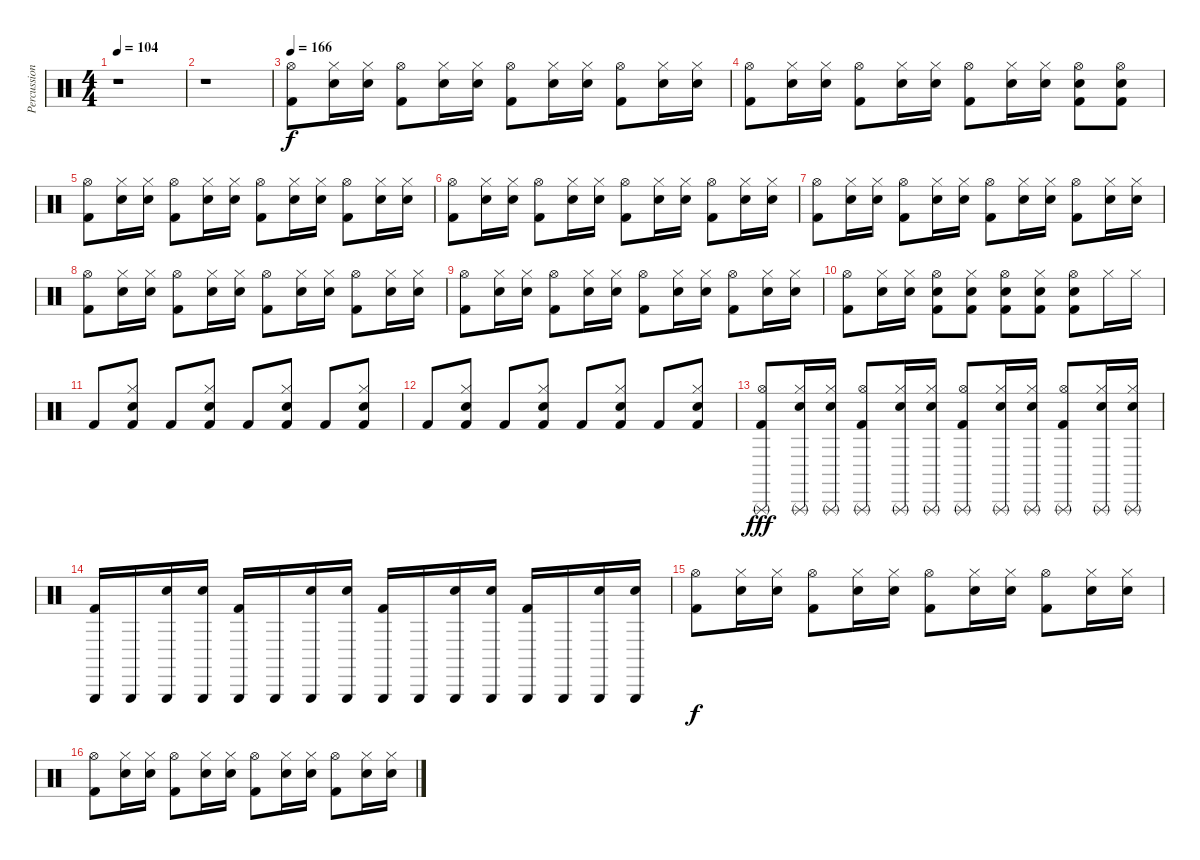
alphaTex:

\track ("Percussion" "Percussion") {instrument percussion}
\staff {score}
\articulation defaults
\ts (4 4)
\tempo 104
\clef neutral
\ks c
r.1{dy f} |
r.1 |
\tempo 166
("Hi-Hat (open)" "Kick (hit) 2").8 ("Hi-Hat (closed)" "Snare (hit) 2").16 ("Hi-Hat (closed)" "Snare (hit) 2").16 ("Hi-Hat (open)" "Kick (hit) 2").8 ("Hi-Hat (closed)" "Snare (hit) 2").16 ("Hi-Hat (closed)" "Snare (hit) 2").16 ("Hi-Hat (open)" "Kick (hit) 2").8 ("Hi-Hat (closed)" "Snare (hit) 2").16 ("Hi-Hat (closed)" "Snare (hit) 2").16 ("Hi-Hat (open)" "Kick (hit) 2").8 ("Hi-Hat (closed)" "Snare (hit) 2").16 ("Hi-Hat (closed)" "Snare (hit) 2").16 |
("Hi-Hat (open)" "Kick (hit) 2").8 ("Hi-Hat (closed)" "Snare (hit) 2").16 ("Hi-Hat (closed)" "Snare (hit) 2").16 ("Hi-Hat (open)" "Kick (hit) 2").8 ("Hi-Hat (closed)" "Snare (hit) 2").16 ("Hi-Hat (closed)" "Snare (hit) 2").16 ("Hi-Hat (open)" "Kick (hit) 2").8 ("Hi-Hat (closed)" "Snare (hit) 2").16 ("Hi-Hat (closed)" "Snare (hit) 2").16 ("Hi-Hat (open)" "Snare (hit) 2" "Kick (hit) 2").8 ("Hi-Hat (open)" "Snare (hit) 2" "Kick (hit) 2").8 |
("Hi-Hat (open)" "Kick (hit) 2").8 ("Hi-Hat (closed)" "Snare (hit) 2").16 ("Hi-Hat (closed)" "Snare (hit) 2").16 ("Hi-Hat (open)" "Kick (hit) 2").8 ("Hi-Hat (closed)" "Snare (hit) 2").16 ("Hi-Hat (closed)" "Snare (hit) 2").16 ("Hi-Hat (open)" "Kick (hit) 2").8 ("Hi-Hat (closed)" "Snare (hit) 2").16 ("Hi-Hat (closed)" "Snare (hit) 2").16 ("Hi-Hat (open)" "Kick (hit) 2").8 ("Hi-Hat (closed)" "Snare (hit) 2").16 ("Hi-Hat (closed)" "Snare (hit) 2").16 |
("Hi-Hat (open)" "Kick (hit) 2").8 ("Hi-Hat (closed)" "Snare (hit) 2").16 ("Hi-Hat (closed)" "Snare (hit) 2").16 ("Hi-Hat (open)" "Kick (hit) 2").8 ("Hi-Hat (closed)" "Snare (hit) 2").16 ("Hi-Hat (closed)" "Snare (hit) 2").16 ("Hi-Hat (open)" "Kick (hit) 2").8 ("Hi-Hat (closed)" "Snare (hit) 2").16 ("Hi-Hat (closed)" "Snare (hit) 2").16 ("Hi-Hat (open)" "Kick (hit) 2").8 ("Hi-Hat (closed)" "Snare (hit) 2").16 ("Hi-Hat (closed)" "Snare (hit) 2").16 |
("Hi-Hat (open)" "Kick (hit) 2").8 ("Hi-Hat (closed)" "Snare (hit) 2").16 ("Hi-Hat (closed)" "Snare (hit) 2").16 ("Hi-Hat (open)" "Kick (hit) 2").8 ("Hi-Hat (closed)" "Snare (hit) 2").16 ("Hi-Hat (closed)" "Snare (hit) 2").16 ("Hi-Hat (open)" "Kick (hit) 2").8 ("Hi-Hat (closed)" "Snare (hit) 2").16 ("Hi-Hat (closed)" "Snare (hit) 2").16 ("Hi-Hat (open)" "Kick (hit) 2").8 ("Hi-Hat (closed)" "Snare (hit) 2").16 ("Hi-Hat (closed)" "Snare (hit) 2").16 |
("Hi-Hat (open)" "Kick (hit) 2").8 ("Hi-Hat (closed)" "Snare (hit) 2").16 ("Hi-Hat (closed)" "Snare (hit) 2").16 ("Hi-Hat (open)" "Kick (hit) 2").8 ("Hi-Hat (closed)" "Snare (hit) 2").16 ("Hi-Hat (closed)" "Snare (hit) 2").16 ("Hi-Hat (open)" "Kick (hit) 2").8 ("Hi-Hat (closed)" "Snare (hit) 2").16 ("Hi-Hat (closed)" "Snare (hit) 2").16 ("Hi-Hat (open)" "Kick (hit) 2").8 ("Hi-Hat (closed)" "Snare (hit) 2").16 ("Hi-Hat (closed)" "Snare (hit) 2").16 |
("Hi-Hat (open)" "Kick (hit) 2").8 ("Hi-Hat (closed)" "Snare (hit) 2").16 ("Hi-Hat (closed)" "Snare (hit) 2").16 ("Hi-Hat (open)" "Kick (hit) 2").8 ("Hi-Hat (closed)" "Snare (hit) 2").16 ("Hi-Hat (closed)" "Snare (hit) 2").16 ("Hi-Hat (open)" "Kick (hit) 2").8 ("Hi-Hat (closed)" "Snare (hit) 2").16 ("Hi-Hat (closed)" "Snare (hit) 2").16 ("Hi-Hat (open)" "Kick (hit) 2").8 ("Hi-Hat (closed)" "Snare (hit) 2").16 ("Hi-Hat (closed)" "Snare (hit) 2").16 |
("Hi-Hat (open)" "Kick (hit) 2").8 ("Hi-Hat (closed)" "Snare (hit) 2").16 ("Hi-Hat (closed)" "Snare (hit) 2").16 ("Hi-Hat (open)" "Snare (hit) 2" "Kick (hit) 2").8 ("Hi-Hat (closed)" "Snare (hit) 2" "Kick (hit) 2").8 ("Hi-Hat (open)" "Snare (hit) 2" "Kick (hit) 2").8 ("Hi-Hat (closed)" "Snare (hit) 2" "Kick (hit) 2").8 ("Hi-Hat (open)" "Snare (hit) 2" "Kick (hit) 2").8 "Hi-Hat (closed)".16 "Hi-Hat (closed)".16 |
"Kick (hit) 2".8 ("Hi-Hat (closed)" "Snare (hit) 2" "Kick (hit) 2").8 "Kick (hit) 2".8 ("Hi-Hat (closed)" "Snare (hit) 2" "Kick (hit) 2").8 "Kick (hit) 2".8 ("Hi-Hat (closed)" "Snare (hit) 2" "Kick (hit) 2").8 "Kick (hit) 2".8 ("Hi-Hat (closed)" "Snare (hit) 2" "Kick (hit) 2").8 |
"Kick (hit) 2".8 ("Hi-Hat (closed)" "Snare (hit) 2" "Kick (hit) 2").8 "Kick (hit) 2".8 ("Hi-Hat (closed)" "Snare (hit) 2" "Kick (hit) 2").8 "Kick (hit) 2".8 ("Hi-Hat (closed)" "Snare (hit) 2" "Kick (hit) 2").8 "Kick (hit) 2".8 ("Hi-Hat (closed)" "Snare (hit) 2" "Kick (hit) 2").8 |
("Hi-Hat (open)" "Triangle (rnute)" "Kick (hit) 2").8{dy fff} ("Hi-Hat (closed)" "Snare (hit) 2" "Triangle (rnute)").16 ("Hi-Hat (closed)" "Snare (hit) 2" "Triangle (rnute)").16 ("Hi-Hat (open)" "Triangle (rnute)" "Kick (hit) 2").8 ("Hi-Hat (closed)" "Snare (hit) 2" "Triangle (rnute)").16 ("Hi-Hat (closed)" "Snare (hit) 2" "Triangle (rnute)").16 ("Hi-Hat (open)" "Triangle (rnute)" "Kick (hit) 2").8 ("Hi-Hat (closed)" "Snare (hit) 2" "Triangle (rnute)").16 ("Hi-Hat (closed)" "Snare (hit) 2" "Triangle (rnute)").16 ("Hi-Hat (open)" "Triangle (rnute)" "Kick (hit) 2").8 ("Hi-Hat (closed)" "Snare (hit) 2" "Triangle (rnute)").16 ("Hi-Hat (closed)" "Snare (hit) 2" "Triangle (rnute)").16 |
("Triangle (hit)" "Kick (hit) 2").16 "Triangle (hit)".16 ("Triangle (hit)" "Snare (hit) 2").16 ("Triangle (hit)" "Snare (hit) 2").16 ("Triangle (hit)" "Kick (hit) 2").16 "Triangle (hit)".16 ("Triangle (hit)" "Snare (hit) 2").16 ("Triangle (hit)" "Snare (hit) 2").16 ("Triangle (hit)" "Kick (hit) 2").16 "Triangle (hit)".16 ("Triangle (hit)" "Snare (hit) 2").16 ("Triangle (hit)" "Snare (hit) 2").16 ("Triangle (hit)" "Kick (hit) 2").16 "Triangle (hit)".16 ("Triangle (hit)" "Snare (hit) 2").16 ("Triangle (hit)" "Snare (hit) 2").16 |
("Hi-Hat (open)" "Kick (hit) 2").8{dy f} ("Hi-Hat (closed)" "Snare (hit) 2").16 ("Hi-Hat (closed)" "Snare (hit) 2").16 ("Hi-Hat (open)" "Kick (hit) 2").8 ("Hi-Hat (closed)" "Snare (hit) 2").16 ("Hi-Hat (closed)" "Snare (hit) 2").16 ("Hi-Hat (open)" "Kick (hit) 2").8 ("Hi-Hat (closed)" "Snare (hit) 2").16 ("Hi-Hat (closed)" "Snare (hit) 2").16 ("Hi-Hat (open)" "Kick (hit) 2").8 ("Hi-Hat (closed)" "Snare (hit) 2").16 ("Hi-Hat (closed)" "Snare (hit) 2").16 |
("Hi-Hat (open)" "Kick (hit) 2").8 ("Hi-Hat (closed)" "Snare (hit) 2").16 ("Hi-Hat (closed)" "Snare (hit) 2").16 ("Hi-Hat (open)" "Kick (hit) 2").8 ("Hi-Hat (closed)" "Snare (hit) 2").16 ("Hi-Hat (closed)" "Snare (hit) 2").16 ("Hi-Hat (open)" "Kick (hit) 2").8 ("Hi-Hat (closed)" "Snare (hit) 2").16 ("Hi-Hat (closed)" "Snare (hit) 2").16 ("Hi-Hat (open)" "Kick (hit) 2").8 ("Hi-Hat (closed)" "Snare (hit) 2").16 ("Hi-Hat (closed)" "Snare (hit) 2").16
